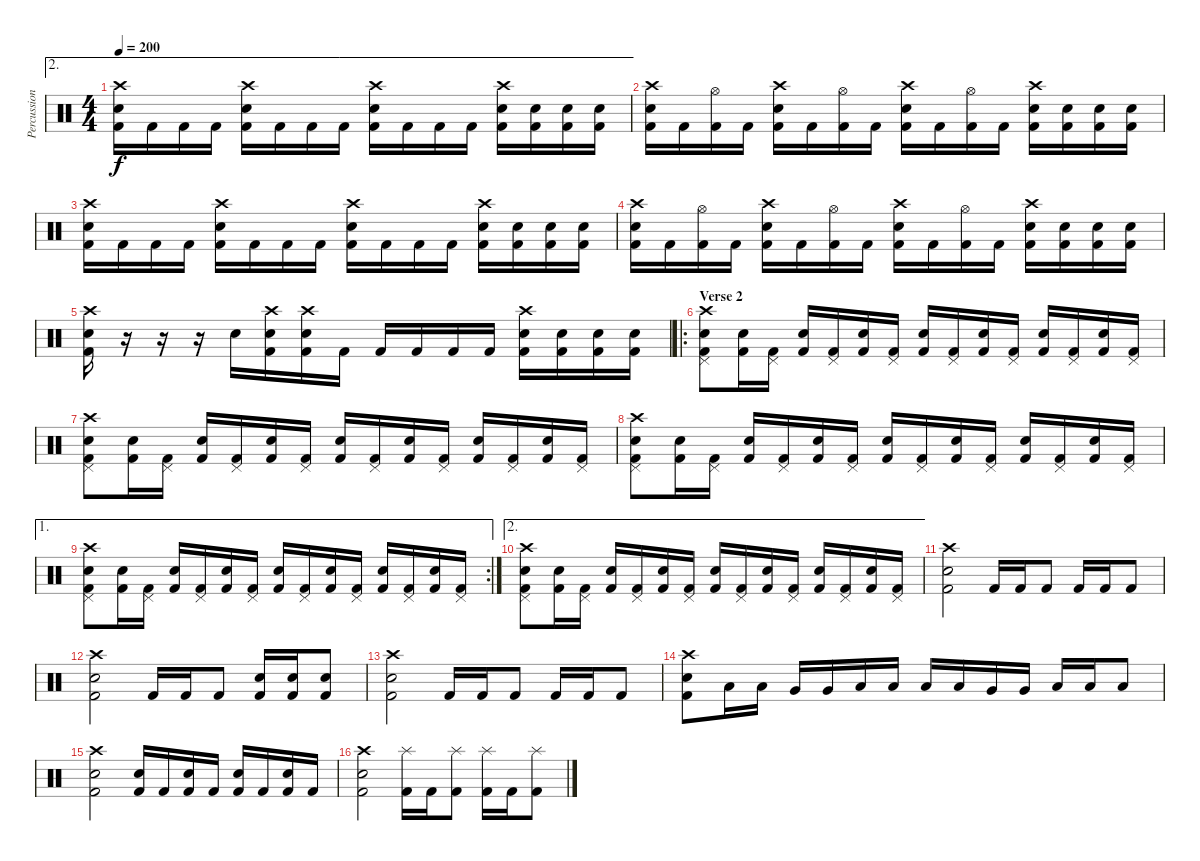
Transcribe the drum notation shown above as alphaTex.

\track ("Percussion" "Percussion") {instrument percussion}
\staff {score}
\articulation defaults
\ae 2
\ts (4 4)
\tempo 200
\clef neutral
\ks c
("Crash high (hit)" "Snare (hit) 2" "Kick (hit) 2").16{dy f} "Kick (hit) 2".16 "Kick (hit) 2".16 "Kick (hit) 2".16 ("Crash high (hit)" "Snare (hit) 2" "Kick (hit) 2").16 "Kick (hit) 2".16 "Kick (hit) 2".16 "Kick (hit) 2".16 ("Crash high (hit)" "Snare (hit) 2" "Kick (hit) 2").16 "Kick (hit) 2".16 "Kick (hit) 2".16 "Kick (hit) 2".16 ("Crash high (hit)" "Snare (hit) 2" "Kick (hit) 2").16 ("Snare (hit) 2" "Kick (hit) 2").16 ("Snare (hit) 2" "Kick (hit) 2").16 ("Snare (hit) 2" "Kick (hit) 2").16 |
("Crash high (hit)" "Snare (hit) 2" "Kick (hit) 2").16 "Kick (hit) 2".16 ("Hi-Hat (open)" "Kick (hit) 2").16 "Kick (hit) 2".16 ("Crash high (hit)" "Snare (hit) 2" "Kick (hit) 2").16 "Kick (hit) 2".16 ("Hi-Hat (open)" "Kick (hit) 2").16 "Kick (hit) 2".16 ("Crash high (hit)" "Snare (hit) 2" "Kick (hit) 2").16 "Kick (hit) 2".16 ("Hi-Hat (open)" "Kick (hit) 2").16 "Kick (hit) 2".16 ("Crash high (hit)" "Snare (hit) 2" "Kick (hit) 2").16 ("Snare (hit) 2" "Kick (hit) 2").16 ("Snare (hit) 2" "Kick (hit) 2").16 ("Snare (hit) 2" "Kick (hit) 2").16 |
("Crash high (hit)" "Snare (hit) 2" "Kick (hit) 2").16 "Kick (hit) 2".16 "Kick (hit) 2".16 "Kick (hit) 2".16 ("Crash high (hit)" "Snare (hit) 2" "Kick (hit) 2").16 "Kick (hit) 2".16 "Kick (hit) 2".16 "Kick (hit) 2".16 ("Crash high (hit)" "Snare (hit) 2" "Kick (hit) 2").16 "Kick (hit) 2".16 "Kick (hit) 2".16 "Kick (hit) 2".16 ("Crash high (hit)" "Snare (hit) 2" "Kick (hit) 2").16 ("Snare (hit) 2" "Kick (hit) 2").16 ("Snare (hit) 2" "Kick (hit) 2").16 ("Snare (hit) 2" "Kick (hit) 2").16 |
("Crash high (hit)" "Snare (hit) 2" "Kick (hit) 2").16 "Kick (hit) 2".16 ("Hi-Hat (open)" "Kick (hit) 2").16 "Kick (hit) 2".16 ("Crash high (hit)" "Snare (hit) 2" "Kick (hit) 2").16 "Kick (hit) 2".16 ("Hi-Hat (open)" "Kick (hit) 2").16 "Kick (hit) 2".16 ("Crash high (hit)" "Snare (hit) 2" "Kick (hit) 2").16 "Kick (hit) 2".16 ("Hi-Hat (open)" "Kick (hit) 2").16 "Kick (hit) 2".16 ("Crash high (hit)" "Snare (hit) 2" "Kick (hit) 2").16 ("Snare (hit) 2" "Kick (hit) 2").16 ("Snare (hit) 2" "Kick (hit) 2").16 ("Snare (hit) 2" "Kick (hit) 2").16 |
("Crash high (hit)" "Snare (hit) 2" "Kick (hit) 2").16 r.16 r.16 r.16 "Electric Snare (hit)".16 ("Crash high (hit)" "Snare (hit) 2" "Kick (hit) 2").16 ("Crash high (hit)" "Snare (hit) 2" "Kick (hit) 2").16 "Kick (hit) 2".16 "Kick (hit) 2".16 "Kick (hit) 2".16 "Kick (hit) 2".16 "Kick (hit) 2".16 ("Crash high (hit)" "Snare (hit) 2" "Kick (hit) 2").16 ("Snare (hit) 2" "Kick (hit) 2").16 ("Snare (hit) 2" "Kick (hit) 2").16 ("Snare (hit) 2" "Kick (hit) 2").16 |
\ro
\section ("" "Verse 2")
("Pedal Hi-Hat (hit)" "Crash high (hit)" "Snare (hit) 2" "Kick (hit) 2").8 ("Snare (hit) 2" "Kick (hit) 2").16 ("Pedal Hi-Hat (hit)" "Kick (hit) 2").16 ("Snare (hit) 2" "Kick (hit) 2").16 ("Pedal Hi-Hat (hit)" "Kick (hit) 2").16 ("Snare (hit) 2" "Kick (hit) 2").16 ("Pedal Hi-Hat (hit)" "Kick (hit) 2").16 ("Snare (hit) 2" "Kick (hit) 2").16 ("Pedal Hi-Hat (hit)" "Kick (hit) 2").16 ("Snare (hit) 2" "Kick (hit) 2").16 ("Pedal Hi-Hat (hit)" "Kick (hit) 2").16 ("Snare (hit) 2" "Kick (hit) 2").16 ("Pedal Hi-Hat (hit)" "Kick (hit) 2").16 ("Snare (hit) 2" "Kick (hit) 2").16 ("Pedal Hi-Hat (hit)" "Kick (hit) 2").16 |
("Pedal Hi-Hat (hit)" "Crash high (hit)" "Snare (hit) 2" "Kick (hit) 2").8 ("Snare (hit) 2" "Kick (hit) 2").16 ("Pedal Hi-Hat (hit)" "Kick (hit) 2").16 ("Snare (hit) 2" "Kick (hit) 2").16 ("Pedal Hi-Hat (hit)" "Kick (hit) 2").16 ("Snare (hit) 2" "Kick (hit) 2").16 ("Pedal Hi-Hat (hit)" "Kick (hit) 2").16 ("Snare (hit) 2" "Kick (hit) 2").16 ("Pedal Hi-Hat (hit)" "Kick (hit) 2").16 ("Snare (hit) 2" "Kick (hit) 2").16 ("Pedal Hi-Hat (hit)" "Kick (hit) 2").16 ("Snare (hit) 2" "Kick (hit) 2").16 ("Pedal Hi-Hat (hit)" "Kick (hit) 2").16 ("Snare (hit) 2" "Kick (hit) 2").16 ("Pedal Hi-Hat (hit)" "Kick (hit) 2").16 |
("Pedal Hi-Hat (hit)" "Crash high (hit)" "Snare (hit) 2" "Kick (hit) 2").8 ("Snare (hit) 2" "Kick (hit) 2").16 ("Pedal Hi-Hat (hit)" "Kick (hit) 2").16 ("Snare (hit) 2" "Kick (hit) 2").16 ("Pedal Hi-Hat (hit)" "Kick (hit) 2").16 ("Snare (hit) 2" "Kick (hit) 2").16 ("Pedal Hi-Hat (hit)" "Kick (hit) 2").16 ("Snare (hit) 2" "Kick (hit) 2").16 ("Pedal Hi-Hat (hit)" "Kick (hit) 2").16 ("Snare (hit) 2" "Kick (hit) 2").16 ("Pedal Hi-Hat (hit)" "Kick (hit) 2").16 ("Snare (hit) 2" "Kick (hit) 2").16 ("Pedal Hi-Hat (hit)" "Kick (hit) 2").16 ("Snare (hit) 2" "Kick (hit) 2").16 ("Pedal Hi-Hat (hit)" "Kick (hit) 2").16 |
\ae 1
\rc 2
("Pedal Hi-Hat (hit)" "Crash high (hit)" "Snare (hit) 2" "Kick (hit) 2").8 ("Snare (hit) 2" "Kick (hit) 2").16 ("Pedal Hi-Hat (hit)" "Kick (hit) 2").16 ("Snare (hit) 2" "Kick (hit) 2").16 ("Pedal Hi-Hat (hit)" "Kick (hit) 2").16 ("Snare (hit) 2" "Kick (hit) 2").16 ("Pedal Hi-Hat (hit)" "Kick (hit) 2").16 ("Snare (hit) 2" "Kick (hit) 2").16 ("Pedal Hi-Hat (hit)" "Kick (hit) 2").16 ("Snare (hit) 2" "Kick (hit) 2").16 ("Pedal Hi-Hat (hit)" "Kick (hit) 2").16 ("Snare (hit) 2" "Kick (hit) 2").16 ("Pedal Hi-Hat (hit)" "Kick (hit) 2").16 ("Snare (hit) 2" "Kick (hit) 2").16 ("Pedal Hi-Hat (hit)" "Kick (hit) 2").16 |
\ae 2
("Pedal Hi-Hat (hit)" "Crash high (hit)" "Snare (hit) 2" "Kick (hit) 2").8 ("Snare (hit) 2" "Kick (hit) 2").16 ("Pedal Hi-Hat (hit)" "Kick (hit) 2").16 ("Snare (hit) 2" "Kick (hit) 2").16 ("Pedal Hi-Hat (hit)" "Kick (hit) 2").16 ("Snare (hit) 2" "Kick (hit) 2").16 ("Pedal Hi-Hat (hit)" "Kick (hit) 2").16 ("Snare (hit) 2" "Kick (hit) 2").16 ("Pedal Hi-Hat (hit)" "Kick (hit) 2").16 ("Snare (hit) 2" "Kick (hit) 2").16 ("Pedal Hi-Hat (hit)" "Kick (hit) 2").16 ("Snare (hit) 2" "Kick (hit) 2").16 ("Pedal Hi-Hat (hit)" "Kick (hit) 2").16 ("Snare (hit) 2" "Kick (hit) 2").16 ("Pedal Hi-Hat (hit)" "Kick (hit) 2").16 |
("Crash high (hit)" "Snare (hit) 2" "Kick (hit) 2").2 "Kick (hit) 2".16 "Kick (hit) 2".16 "Kick (hit) 2".8 "Kick (hit) 2".16 "Kick (hit) 2".16 "Kick (hit) 2".8 |
("Crash high (hit)" "Snare (hit) 2" "Kick (hit) 2").2 "Kick (hit) 2".16 "Kick (hit) 2".16 "Kick (hit) 2".8 ("Snare (hit) 2" "Kick (hit) 2").16 ("Snare (hit) 2" "Kick (hit) 2").16 ("Snare (hit) 2" "Kick (hit) 2").8 |
("Crash high (hit)" "Snare (hit) 2" "Kick (hit) 2").2 "Kick (hit) 2".16 "Kick (hit) 2".16 "Kick (hit) 2".8 "Kick (hit) 2".16 "Kick (hit) 2".16 "Kick (hit) 2".8 |
("Crash high (hit)" "Snare (hit) 2" "Kick (hit) 2").8 "Low Tom (hit)".16 "Low Tom (hit)".16 "Very Low Tom (hit)".16 "Very Low Tom (hit)".16 "Low Floor Tom (hit)".16 "Low Floor Tom (hit)".16 "Low Tom (hit)".16 "Low Tom (hit)".16 "Very Low Tom (hit)".16 "Very Low Tom (hit)".16 "Low Floor Tom (hit)".16 "Low Floor Tom (hit)".16 "Low Floor Tom (hit)".8 |
("Crash high (hit)" "Snare (hit) 2" "Kick (hit) 2").2 ("Snare (hit) 2" "Kick (hit) 2").16 "Kick (hit) 2".16 ("Snare (hit) 2" "Kick (hit) 2").16 "Kick (hit) 2".16 ("Snare (hit) 2" "Kick (hit) 2").16 "Kick (hit) 2".16 ("Snare (hit) 2" "Kick (hit) 2").16 "Kick (hit) 2".16 |
("Crash high (hit)" "Snare (hit) 2" "Kick (hit) 2").2 ("Splash (hit)" "Kick (hit) 2").16 "Kick (hit) 2".16 ("Splash (hit)" "Kick (hit) 2").8 ("Splash (hit)" "Kick (hit) 2").16 "Kick (hit) 2".16 ("Splash (hit)" "Kick (hit) 2").8
